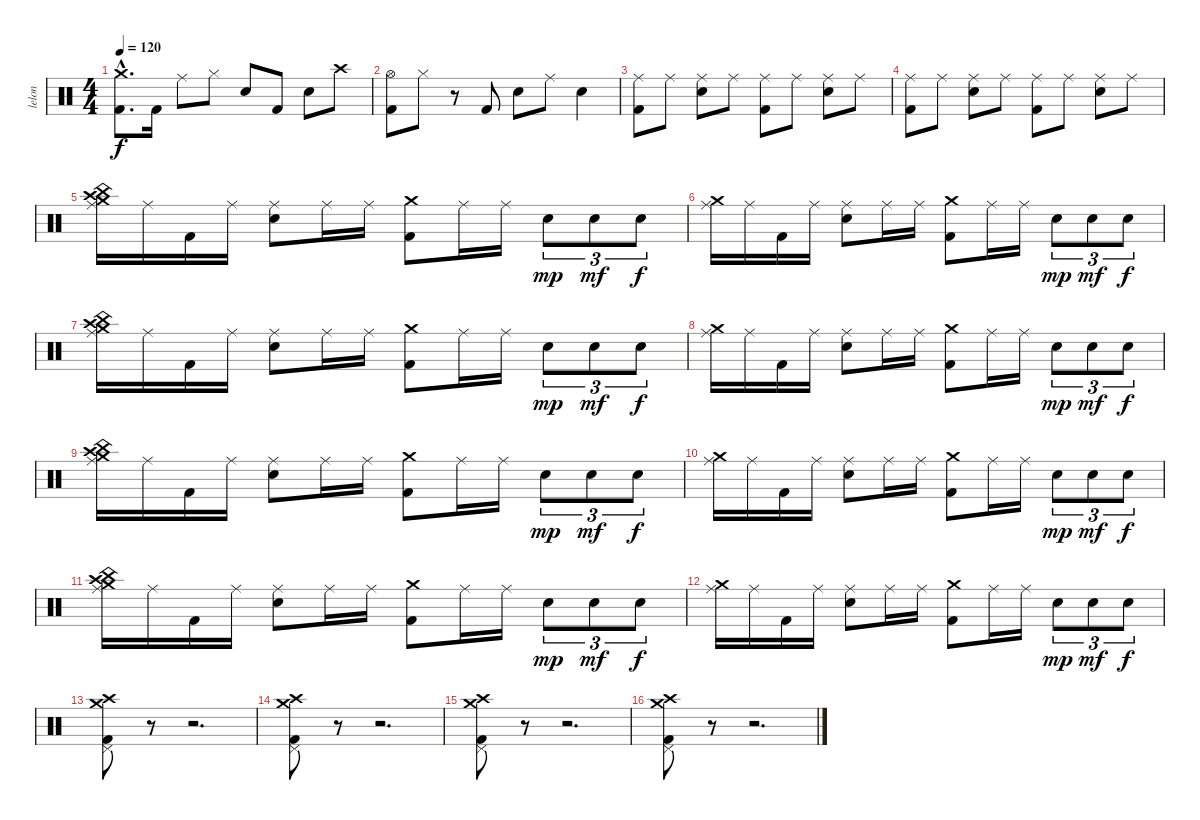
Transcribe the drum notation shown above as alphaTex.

\track ("lelon" "lelon") {instrument percussion}
\staff {score}
\articulation defaults
\ts (4 4)
\tempo 120
\clef neutral
\ks c
("Crash medium (hit)"{hac} "Kick (hit) 2"{hac}).8{d dy f} "Kick (hit) 2".16 "Ride (middle)".8 "Hi-Hat (closed)".8 "Electric Snare (hit)".8 "Kick (hit) 2".8 "Electric Snare (hit)".8 "Crash high (hit)".8 |
("Hi-Hat (open)" "Kick (hit) 2").8 "Hi-Hat (closed)".8 r.8 "Kick (hit) 2".8 "Electric Snare (hit)".8 "Ride (middle)".8 "Electric Snare (hit)".4 |
("Ride (middle)" "Kick (hit) 2").8 "Ride (middle)".8 ("Ride (middle)" "Electric Snare (hit)").8 "Ride (middle)".8 ("Ride (middle)" "Kick (hit) 2").8 "Ride (middle)".8 ("Ride (middle)" "Electric Snare (hit)").8 "Ride (middle)".8 |
("Ride (middle)" "Kick (hit) 2").8 "Ride (middle)".8 ("Ride (middle)" "Electric Snare (hit)").8 "Ride (middle)".8 ("Ride (middle)" "Kick (hit) 2").8 "Ride (middle)".8 ("Ride (middle)" "Electric Snare (hit)").8 "Ride (middle)".8 |
("Ride (middle)" "Crash medium (hit)" "Crash high (hit)" "China (hit)").16 "Ride (middle)".16 "Kick (hit) 2".16 "Ride (middle)".16 ("Ride (middle)" "Electric Snare (hit)").8 "Ride (middle)".16 "Ride (middle)".16 ("Crash medium (hit)" "Kick (hit) 2").8 "Ride (middle)".16 "Ride (middle)".16 "Electric Snare (hit)".8{tu (3 2) dy mp} "Electric Snare (hit)".8{tu (3 2) dy mf} "Electric Snare (hit)".8{tu (3 2) dy f} |
("Ride (middle)" "Crash medium (hit)").16 "Ride (middle)".16 "Kick (hit) 2".16 "Ride (middle)".16 ("Ride (middle)" "Electric Snare (hit)").8 "Ride (middle)".16 "Ride (middle)".16 ("Crash medium (hit)" "Kick (hit) 2").8 "Ride (middle)".16 "Ride (middle)".16 "Electric Snare (hit)".8{tu (3 2) dy mp} "Electric Snare (hit)".8{tu (3 2) dy mf} "Electric Snare (hit)".8{tu (3 2) dy f} |
("Ride (middle)" "Crash medium (hit)" "Crash high (hit)" "China (hit)").16 "Ride (middle)".16 "Kick (hit) 2".16 "Ride (middle)".16 ("Ride (middle)" "Electric Snare (hit)").8 "Ride (middle)".16 "Ride (middle)".16 ("Crash medium (hit)" "Kick (hit) 2").8 "Ride (middle)".16 "Ride (middle)".16 "Electric Snare (hit)".8{tu (3 2) dy mp} "Electric Snare (hit)".8{tu (3 2) dy mf} "Electric Snare (hit)".8{tu (3 2) dy f} |
("Ride (middle)" "Crash medium (hit)").16 "Ride (middle)".16 "Kick (hit) 2".16 "Ride (middle)".16 ("Ride (middle)" "Electric Snare (hit)").8 "Ride (middle)".16 "Ride (middle)".16 ("Crash medium (hit)" "Kick (hit) 2").8 "Ride (middle)".16 "Ride (middle)".16 "Electric Snare (hit)".8{tu (3 2) dy mp} "Electric Snare (hit)".8{tu (3 2) dy mf} "Electric Snare (hit)".8{tu (3 2) dy f} |
("Ride (middle)" "Crash medium (hit)" "Crash high (hit)" "China (hit)").16 "Ride (middle)".16 "Kick (hit) 2".16 "Ride (middle)".16 ("Ride (middle)" "Electric Snare (hit)").8 "Ride (middle)".16 "Ride (middle)".16 ("Crash medium (hit)" "Kick (hit) 2").8 "Ride (middle)".16 "Ride (middle)".16 "Electric Snare (hit)".8{tu (3 2) dy mp} "Electric Snare (hit)".8{tu (3 2) dy mf} "Electric Snare (hit)".8{tu (3 2) dy f} |
("Ride (middle)" "Crash medium (hit)").16 "Ride (middle)".16 "Kick (hit) 2".16 "Ride (middle)".16 ("Ride (middle)" "Electric Snare (hit)").8 "Ride (middle)".16 "Ride (middle)".16 ("Crash medium (hit)" "Kick (hit) 2").8 "Ride (middle)".16 "Ride (middle)".16 "Electric Snare (hit)".8{tu (3 2) dy mp} "Electric Snare (hit)".8{tu (3 2) dy mf} "Electric Snare (hit)".8{tu (3 2) dy f} |
("Ride (middle)" "Crash medium (hit)" "Crash high (hit)" "China (hit)").16 "Ride (middle)".16 "Kick (hit) 2".16 "Ride (middle)".16 ("Ride (middle)" "Electric Snare (hit)").8 "Ride (middle)".16 "Ride (middle)".16 ("Crash medium (hit)" "Kick (hit) 2").8 "Ride (middle)".16 "Ride (middle)".16 "Electric Snare (hit)".8{tu (3 2) dy mp} "Electric Snare (hit)".8{tu (3 2) dy mf} "Electric Snare (hit)".8{tu (3 2) dy f} |
("Ride (middle)" "Crash medium (hit)").16 "Ride (middle)".16 "Kick (hit) 2".16 "Ride (middle)".16 ("Ride (middle)" "Electric Snare (hit)").8 "Ride (middle)".16 "Ride (middle)".16 ("Crash medium (hit)" "Kick (hit) 2").8 "Ride (middle)".16 "Ride (middle)".16 "Electric Snare (hit)".8{tu (3 2) dy mp} "Electric Snare (hit)".8{tu (3 2) dy mf} "Electric Snare (hit)".8{tu (3 2) dy f} |
("Crash high (hit)" "Pedal Hi-Hat (hit)" "Crash medium (hit)" "Kick (hit) 2").8 r.8 r.2{d} |
("Crash high (hit)" "Pedal Hi-Hat (hit)" "Crash medium (hit)" "Kick (hit) 2").8 r.8 r.2{d} |
("Crash high (hit)" "Pedal Hi-Hat (hit)" "Crash medium (hit)" "Kick (hit) 2").8 r.8 r.2{d} |
("Crash high (hit)" "Pedal Hi-Hat (hit)" "Crash medium (hit)" "Kick (hit) 2").8 r.8 r.2{d}
